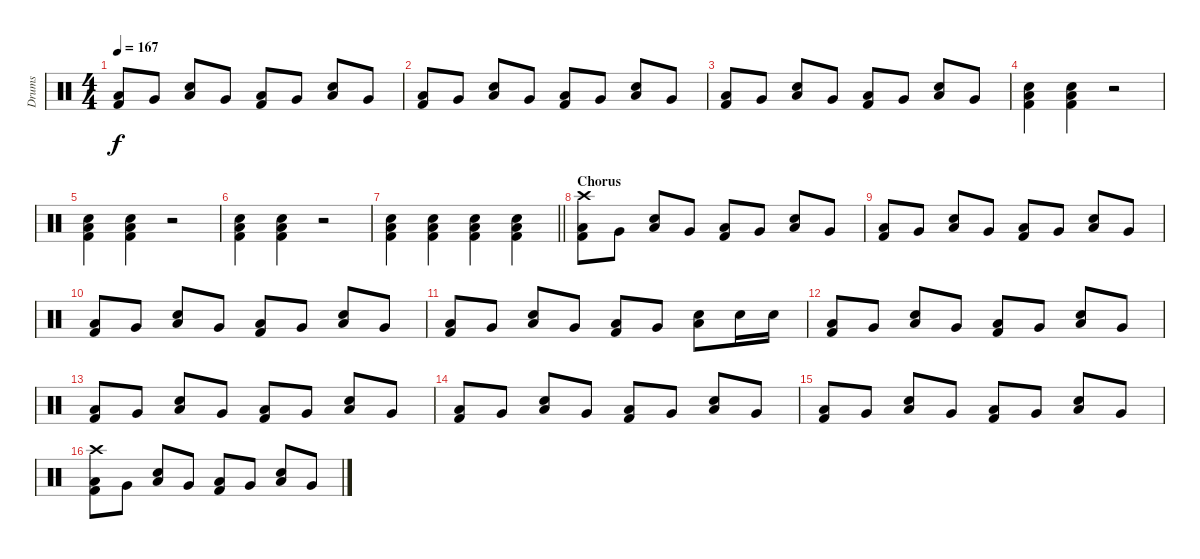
\track ("Drums" "Drums") {instrument percussion}
\staff {score}
\articulation defaults
\ts (4 4)
\tempo 167
\clef neutral
\ks c
("Low Floor Tom (hit)" "Kick (hit) 2").8{dy f} "Very Low Tom (hit)".8 ("Low Floor Tom (hit)" "Snare (hit) 2").8 "Very Low Tom (hit)".8 ("Low Floor Tom (hit)" "Kick (hit) 2").8 "Very Low Tom (hit)".8 ("Low Floor Tom (hit)" "Snare (hit) 2").8 "Very Low Tom (hit)".8 |
("Low Floor Tom (hit)" "Kick (hit) 2").8 "Very Low Tom (hit)".8 ("Low Floor Tom (hit)" "Snare (hit) 2").8 "Very Low Tom (hit)".8 ("Low Floor Tom (hit)" "Kick (hit) 2").8 "Very Low Tom (hit)".8 ("Low Floor Tom (hit)" "Snare (hit) 2").8 "Very Low Tom (hit)".8 |
("Low Floor Tom (hit)" "Kick (hit) 2").8 "Very Low Tom (hit)".8 ("Low Floor Tom (hit)" "Snare (hit) 2").8 "Very Low Tom (hit)".8 ("Low Floor Tom (hit)" "Kick (hit) 2").8 "Very Low Tom (hit)".8 ("Low Floor Tom (hit)" "Snare (hit) 2").8 "Very Low Tom (hit)".8 |
("Low Floor Tom (hit)" "Snare (hit) 2" "Kick (hit) 2").4 ("Low Floor Tom (hit)" "Snare (hit) 2" "Kick (hit) 2").4 r.2 |
("Low Floor Tom (hit)" "Snare (hit) 2" "Kick (hit) 2").4 ("Low Floor Tom (hit)" "Snare (hit) 2" "Kick (hit) 2").4 r.2 |
("Low Floor Tom (hit)" "Snare (hit) 2" "Kick (hit) 2").4 ("Low Floor Tom (hit)" "Snare (hit) 2" "Kick (hit) 2").4 r.2 |
\barLineRight lightlight
("Low Floor Tom (hit)" "Snare (hit) 2" "Kick (hit) 2").4 ("Low Floor Tom (hit)" "Snare (hit) 2" "Kick (hit) 2").4 ("Low Floor Tom (hit)" "Snare (hit) 2" "Kick (hit) 2").4 ("Low Floor Tom (hit)" "Snare (hit) 2" "Kick (hit) 2").4 |
\section ("" "Chorus")
("Crash high (hit)" "Low Floor Tom (hit)" "Kick (hit) 2").8 "Very Low Tom (hit)".8 ("Low Floor Tom (hit)" "Snare (hit) 2").8 "Very Low Tom (hit)".8 ("Low Floor Tom (hit)" "Kick (hit) 2").8 "Very Low Tom (hit)".8 ("Low Floor Tom (hit)" "Snare (hit) 2").8 "Very Low Tom (hit)".8 |
("Low Floor Tom (hit)" "Kick (hit) 2").8 "Very Low Tom (hit)".8 ("Low Floor Tom (hit)" "Snare (hit) 2").8 "Very Low Tom (hit)".8 ("Low Floor Tom (hit)" "Kick (hit) 2").8 "Very Low Tom (hit)".8 ("Low Floor Tom (hit)" "Snare (hit) 2").8 "Very Low Tom (hit)".8 |
("Low Floor Tom (hit)" "Kick (hit) 2").8 "Very Low Tom (hit)".8 ("Low Floor Tom (hit)" "Snare (hit) 2").8 "Very Low Tom (hit)".8 ("Low Floor Tom (hit)" "Kick (hit) 2").8 "Very Low Tom (hit)".8 ("Low Floor Tom (hit)" "Snare (hit) 2").8 "Very Low Tom (hit)".8 |
("Low Floor Tom (hit)" "Kick (hit) 2").8 "Very Low Tom (hit)".8 ("Low Floor Tom (hit)" "Snare (hit) 2").8 "Very Low Tom (hit)".8 ("Low Floor Tom (hit)" "Kick (hit) 2").8 "Very Low Tom (hit)".8 ("Low Floor Tom (hit)" "Snare (hit) 2").8 "Snare (hit) 2".16 "Snare (hit) 2".16 |
("Low Floor Tom (hit)" "Kick (hit) 2").8 "Very Low Tom (hit)".8 ("Low Floor Tom (hit)" "Snare (hit) 2").8 "Very Low Tom (hit)".8 ("Low Floor Tom (hit)" "Kick (hit) 2").8 "Very Low Tom (hit)".8 ("Low Floor Tom (hit)" "Snare (hit) 2").8 "Very Low Tom (hit)".8 |
("Low Floor Tom (hit)" "Kick (hit) 2").8 "Very Low Tom (hit)".8 ("Low Floor Tom (hit)" "Snare (hit) 2").8 "Very Low Tom (hit)".8 ("Low Floor Tom (hit)" "Kick (hit) 2").8 "Very Low Tom (hit)".8 ("Low Floor Tom (hit)" "Snare (hit) 2").8 "Very Low Tom (hit)".8 |
("Low Floor Tom (hit)" "Kick (hit) 2").8 "Very Low Tom (hit)".8 ("Low Floor Tom (hit)" "Snare (hit) 2").8 "Very Low Tom (hit)".8 ("Low Floor Tom (hit)" "Kick (hit) 2").8 "Very Low Tom (hit)".8 ("Low Floor Tom (hit)" "Snare (hit) 2").8 "Very Low Tom (hit)".8 |
("Low Floor Tom (hit)" "Kick (hit) 2").8 "Very Low Tom (hit)".8 ("Low Floor Tom (hit)" "Snare (hit) 2").8 "Very Low Tom (hit)".8 ("Low Floor Tom (hit)" "Kick (hit) 2").8 "Very Low Tom (hit)".8 ("Low Floor Tom (hit)" "Snare (hit) 2").8 "Very Low Tom (hit)".8 |
("Crash high (hit)" "Low Floor Tom (hit)" "Kick (hit) 2").8 "Very Low Tom (hit)".8 ("Low Floor Tom (hit)" "Snare (hit) 2").8 "Very Low Tom (hit)".8 ("Low Floor Tom (hit)" "Kick (hit) 2").8 "Very Low Tom (hit)".8 ("Low Floor Tom (hit)" "Snare (hit) 2").8 "Very Low Tom (hit)".8
